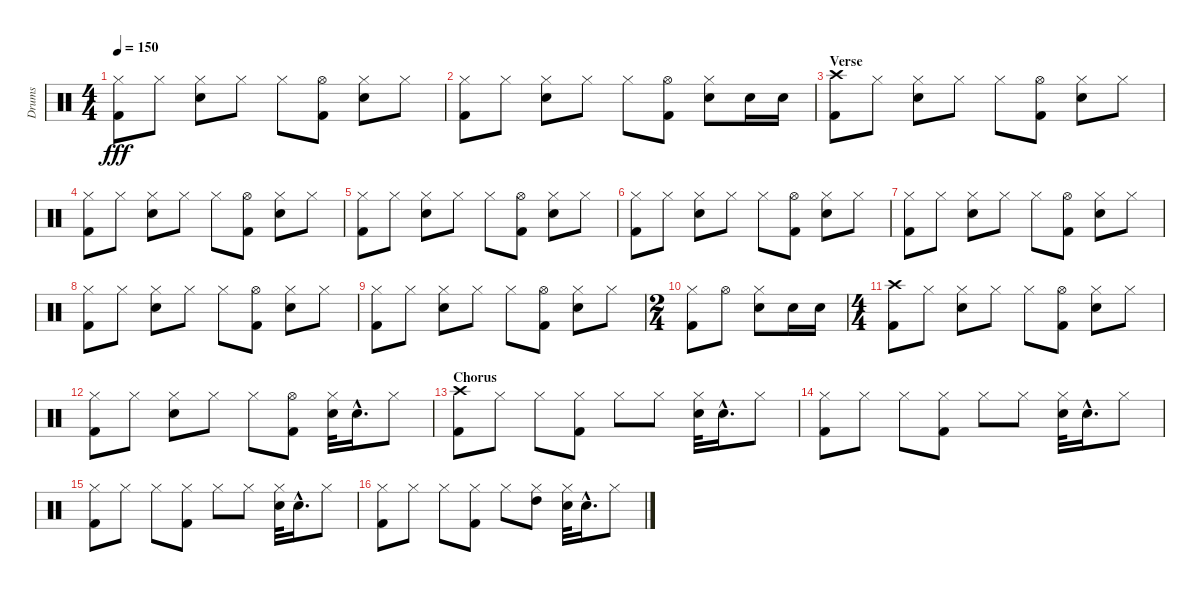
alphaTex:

\track ("Drums" "Drums") {instrument percussion}
\staff {score}
\articulation defaults
\ts (4 4)
\tempo 150
\clef neutral
\ks c
("Hi-Hat (closed)" "Kick (hit) 2").8{dy fff} "Hi-Hat (closed)".8 ("Hi-Hat (closed)" "Snare (hit) 2").8 "Hi-Hat (closed)".8 "Hi-Hat (closed)".8 ("Hi-Hat (open)" "Kick (hit) 2").8 ("Hi-Hat (closed)" "Snare (hit) 2").8 "Hi-Hat (closed)".8 |
("Hi-Hat (closed)" "Kick (hit) 2").8 "Hi-Hat (closed)".8 ("Hi-Hat (closed)" "Snare (hit) 2").8 "Hi-Hat (closed)".8 "Hi-Hat (closed)".8 ("Hi-Hat (open)" "Kick (hit) 2").8 ("Hi-Hat (closed)" "Snare (hit) 2").8 "Snare (hit) 2".16 "Snare (hit) 2".16 |
\section ("" "Verse")
("Crash high (hit)" "Kick (hit) 2").8 "Hi-Hat (closed)".8 ("Hi-Hat (closed)" "Snare (hit) 2").8 "Hi-Hat (closed)".8 "Hi-Hat (closed)".8 ("Hi-Hat (open)" "Kick (hit) 2").8 ("Hi-Hat (closed)" "Snare (hit) 2").8 "Hi-Hat (closed)".8 |
("Hi-Hat (closed)" "Kick (hit) 2").8 "Hi-Hat (closed)".8 ("Hi-Hat (closed)" "Snare (hit) 2").8 "Hi-Hat (closed)".8 "Hi-Hat (closed)".8 ("Hi-Hat (open)" "Kick (hit) 2").8 ("Hi-Hat (closed)" "Snare (hit) 2").8 "Hi-Hat (closed)".8 |
("Hi-Hat (closed)" "Kick (hit) 2").8 "Hi-Hat (closed)".8 ("Hi-Hat (closed)" "Snare (hit) 2").8 "Hi-Hat (closed)".8 "Hi-Hat (closed)".8 ("Hi-Hat (open)" "Kick (hit) 2").8 ("Hi-Hat (closed)" "Snare (hit) 2").8 "Hi-Hat (closed)".8 |
("Hi-Hat (closed)" "Kick (hit) 2").8 "Hi-Hat (closed)".8 ("Hi-Hat (closed)" "Snare (hit) 2").8 "Hi-Hat (closed)".8 "Hi-Hat (closed)".8 ("Hi-Hat (open)" "Kick (hit) 2").8 ("Hi-Hat (closed)" "Snare (hit) 2").8 "Hi-Hat (closed)".8 |
("Hi-Hat (closed)" "Kick (hit) 2").8 "Hi-Hat (closed)".8 ("Hi-Hat (closed)" "Snare (hit) 2").8 "Hi-Hat (closed)".8 "Hi-Hat (closed)".8 ("Hi-Hat (open)" "Kick (hit) 2").8 ("Hi-Hat (closed)" "Snare (hit) 2").8 "Hi-Hat (closed)".8 |
("Hi-Hat (closed)" "Kick (hit) 2").8 "Hi-Hat (closed)".8 ("Hi-Hat (closed)" "Snare (hit) 2").8 "Hi-Hat (closed)".8 "Hi-Hat (closed)".8 ("Hi-Hat (open)" "Kick (hit) 2").8 ("Hi-Hat (closed)" "Snare (hit) 2").8 "Hi-Hat (closed)".8 |
("Hi-Hat (closed)" "Kick (hit) 2").8 "Hi-Hat (closed)".8 ("Hi-Hat (closed)" "Snare (hit) 2").8 "Hi-Hat (closed)".8 "Hi-Hat (closed)".8 ("Hi-Hat (open)" "Kick (hit) 2").8 ("Hi-Hat (closed)" "Snare (hit) 2").8 "Hi-Hat (closed)".8 |
\ts (2 4)
("Hi-Hat (closed)" "Kick (hit) 2").8 "Hi-Hat (open)".8 ("Hi-Hat (closed)" "Snare (hit) 2").8 "Snare (hit) 2".16 "Snare (hit) 2".16 |
\ts (4 4)
("Crash high (hit)" "Kick (hit) 2").8 "Hi-Hat (closed)".8 ("Hi-Hat (closed)" "Snare (hit) 2").8 "Hi-Hat (closed)".8 "Hi-Hat (closed)".8 ("Hi-Hat (open)" "Kick (hit) 2").8 ("Hi-Hat (closed)" "Snare (hit) 2").8 "Hi-Hat (closed)".8 |
("Hi-Hat (closed)" "Kick (hit) 2").8 "Hi-Hat (closed)".8 ("Hi-Hat (closed)" "Snare (hit) 2").8 "Hi-Hat (closed)".8 "Hi-Hat (closed)".8 ("Hi-Hat (open)" "Kick (hit) 2").8 ("Hi-Hat (closed)" "Snare (hit) 2").32 "Snare (hit) 2"{hac}.16{d} "Hi-Hat (closed)".8 |
\section ("" "Chorus")
("Crash high (hit)" "Kick (hit) 2").8 "Hi-Hat (closed)".8 "Hi-Hat (closed)".8 ("Hi-Hat (closed)" "Kick (hit) 2").8 "Hi-Hat (closed)".8 "Hi-Hat (closed)".8 ("Hi-Hat (closed)" "Snare (hit) 2").32 "Snare (hit) 2"{hac}.16{d} "Hi-Hat (closed)".8 |
("Hi-Hat (closed)" "Kick (hit) 2").8 "Hi-Hat (closed)".8 "Hi-Hat (closed)".8 ("Hi-Hat (closed)" "Kick (hit) 2").8 "Hi-Hat (closed)".8 "Hi-Hat (closed)".8 ("Hi-Hat (closed)" "Snare (hit) 2").32 "Snare (hit) 2"{hac}.16{d} "Hi-Hat (closed)".8 |
("Hi-Hat (closed)" "Kick (hit) 2").8 "Hi-Hat (closed)".8 "Hi-Hat (closed)".8 ("Hi-Hat (closed)" "Kick (hit) 2").8 "Hi-Hat (closed)".8 "Hi-Hat (closed)".8 ("Hi-Hat (closed)" "Snare (hit) 2").32 "Snare (hit) 2"{hac}.16{d} "Hi-Hat (closed)".8 |
("Hi-Hat (closed)" "Kick (hit) 2").8 "Hi-Hat (closed)".8 "Hi-Hat (closed)".8 ("Hi-Hat (closed)" "Kick (hit) 2").8 "Hi-Hat (closed)".8 ("Hi-Hat (closed)" "High Tom (hit)").8 ("Hi-Hat (closed)" "Snare (hit) 2").32 "Snare (hit) 2"{hac}.16{d} "Hi-Hat (closed)".8
